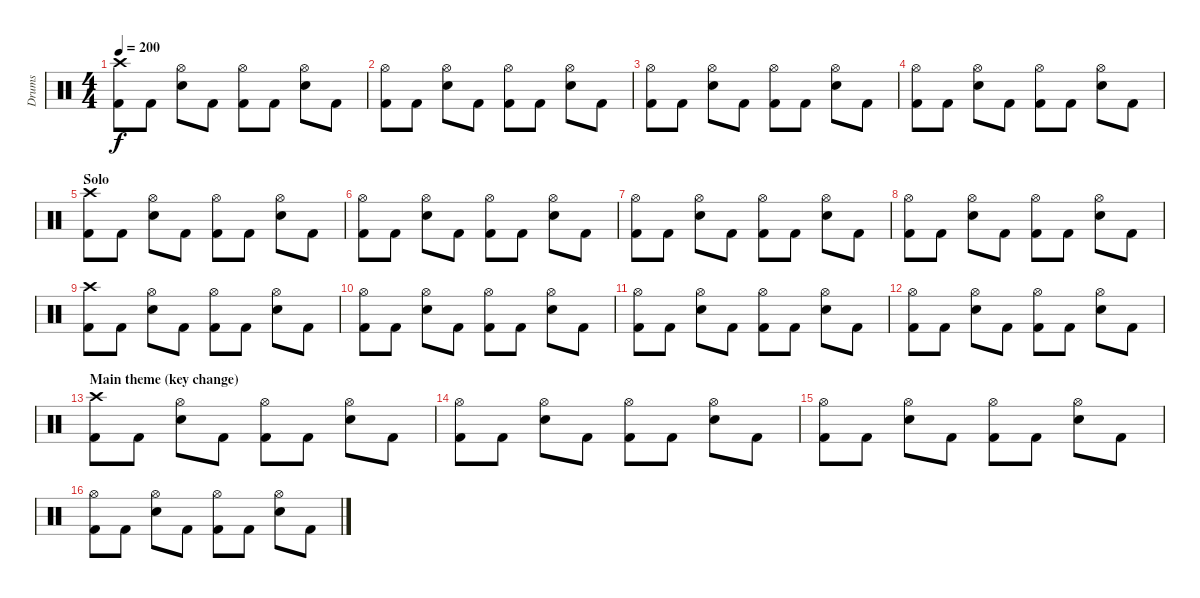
\track ("Drums" "Drums") {instrument percussion}
\staff {score}
\articulation defaults
\ts (4 4)
\tempo 200
\clef neutral
\ks c
("Crash high (hit)" "Kick (hit) 2").8{dy f} "Kick (hit) 2".8 ("Hi-Hat (open)" "Electric Snare (hit)").8 "Kick (hit) 2".8 ("Hi-Hat (open)" "Kick (hit) 2").8 "Kick (hit) 2".8 ("Hi-Hat (open)" "Electric Snare (hit)").8 "Kick (hit) 2".8 |
("Hi-Hat (open)" "Kick (hit) 2").8 "Kick (hit) 2".8 ("Hi-Hat (open)" "Electric Snare (hit)").8 "Kick (hit) 2".8 ("Hi-Hat (open)" "Kick (hit) 2").8 "Kick (hit) 2".8 ("Hi-Hat (open)" "Electric Snare (hit)").8 "Kick (hit) 2".8 |
("Hi-Hat (open)" "Kick (hit) 2").8 "Kick (hit) 2".8 ("Hi-Hat (open)" "Electric Snare (hit)").8 "Kick (hit) 2".8 ("Hi-Hat (open)" "Kick (hit) 2").8 "Kick (hit) 2".8 ("Hi-Hat (open)" "Electric Snare (hit)").8 "Kick (hit) 2".8 |
("Hi-Hat (open)" "Kick (hit) 2").8 "Kick (hit) 2".8 ("Hi-Hat (open)" "Electric Snare (hit)").8 "Kick (hit) 2".8 ("Hi-Hat (open)" "Kick (hit) 2").8 "Kick (hit) 2".8 ("Hi-Hat (open)" "Electric Snare (hit)").8 "Kick (hit) 2".8 |
\section ("" "Solo")
("Crash high (hit)" "Kick (hit) 2").8 "Kick (hit) 2".8 ("Hi-Hat (open)" "Electric Snare (hit)").8 "Kick (hit) 2".8 ("Hi-Hat (open)" "Kick (hit) 2").8 "Kick (hit) 2".8 ("Hi-Hat (open)" "Electric Snare (hit)").8 "Kick (hit) 2".8 |
("Hi-Hat (open)" "Kick (hit) 2").8 "Kick (hit) 2".8 ("Hi-Hat (open)" "Electric Snare (hit)").8 "Kick (hit) 2".8 ("Hi-Hat (open)" "Kick (hit) 2").8 "Kick (hit) 2".8 ("Hi-Hat (open)" "Electric Snare (hit)").8 "Kick (hit) 2".8 |
("Hi-Hat (open)" "Kick (hit) 2").8 "Kick (hit) 2".8 ("Hi-Hat (open)" "Electric Snare (hit)").8 "Kick (hit) 2".8 ("Hi-Hat (open)" "Kick (hit) 2").8 "Kick (hit) 2".8 ("Hi-Hat (open)" "Electric Snare (hit)").8 "Kick (hit) 2".8 |
("Hi-Hat (open)" "Kick (hit) 2").8 "Kick (hit) 2".8 ("Hi-Hat (open)" "Electric Snare (hit)").8 "Kick (hit) 2".8 ("Hi-Hat (open)" "Kick (hit) 2").8 "Kick (hit) 2".8 ("Hi-Hat (open)" "Electric Snare (hit)").8 "Kick (hit) 2".8 |
("Crash high (hit)" "Kick (hit) 2").8 "Kick (hit) 2".8 ("Hi-Hat (open)" "Electric Snare (hit)").8 "Kick (hit) 2".8 ("Hi-Hat (open)" "Kick (hit) 2").8 "Kick (hit) 2".8 ("Hi-Hat (open)" "Electric Snare (hit)").8 "Kick (hit) 2".8 |
("Hi-Hat (open)" "Kick (hit) 2").8 "Kick (hit) 2".8 ("Hi-Hat (open)" "Electric Snare (hit)").8 "Kick (hit) 2".8 ("Hi-Hat (open)" "Kick (hit) 2").8 "Kick (hit) 2".8 ("Hi-Hat (open)" "Electric Snare (hit)").8 "Kick (hit) 2".8 |
("Hi-Hat (open)" "Kick (hit) 2").8 "Kick (hit) 2".8 ("Hi-Hat (open)" "Electric Snare (hit)").8 "Kick (hit) 2".8 ("Hi-Hat (open)" "Kick (hit) 2").8 "Kick (hit) 2".8 ("Hi-Hat (open)" "Electric Snare (hit)").8 "Kick (hit) 2".8 |
("Hi-Hat (open)" "Kick (hit) 2").8 "Kick (hit) 2".8 ("Hi-Hat (open)" "Electric Snare (hit)").8 "Kick (hit) 2".8 ("Hi-Hat (open)" "Kick (hit) 2").8 "Kick (hit) 2".8 ("Hi-Hat (open)" "Electric Snare (hit)").8 "Kick (hit) 2".8 |
\section ("" "Main theme (key change)")
("Crash high (hit)" "Kick (hit) 2").8 "Kick (hit) 2".8 ("Hi-Hat (open)" "Electric Snare (hit)").8 "Kick (hit) 2".8 ("Hi-Hat (open)" "Kick (hit) 2").8 "Kick (hit) 2".8 ("Hi-Hat (open)" "Electric Snare (hit)").8 "Kick (hit) 2".8 |
("Hi-Hat (open)" "Kick (hit) 2").8 "Kick (hit) 2".8 ("Hi-Hat (open)" "Electric Snare (hit)").8 "Kick (hit) 2".8 ("Hi-Hat (open)" "Kick (hit) 2").8 "Kick (hit) 2".8 ("Hi-Hat (open)" "Electric Snare (hit)").8 "Kick (hit) 2".8 |
("Hi-Hat (open)" "Kick (hit) 2").8 "Kick (hit) 2".8 ("Hi-Hat (open)" "Electric Snare (hit)").8 "Kick (hit) 2".8 ("Hi-Hat (open)" "Kick (hit) 2").8 "Kick (hit) 2".8 ("Hi-Hat (open)" "Electric Snare (hit)").8 "Kick (hit) 2".8 |
("Hi-Hat (open)" "Kick (hit) 2").8 "Kick (hit) 2".8 ("Hi-Hat (open)" "Electric Snare (hit)").8 "Kick (hit) 2".8 ("Hi-Hat (open)" "Kick (hit) 2").8 "Kick (hit) 2".8 ("Hi-Hat (open)" "Electric Snare (hit)").8 "Kick (hit) 2".8
